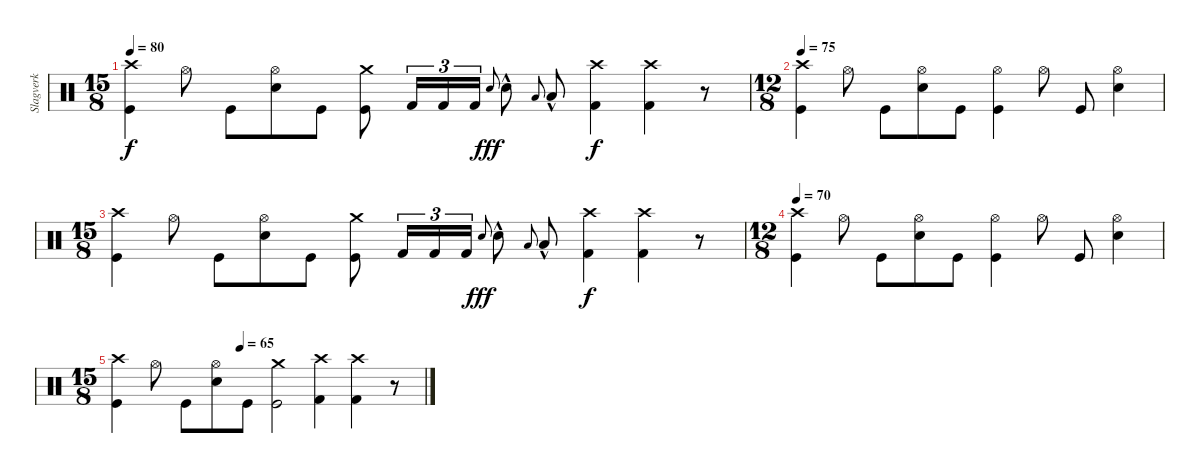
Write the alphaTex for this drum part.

\track ("Slagverk" "Slagverk") {instrument percussion}
\staff {score}
\articulation defaults
\ts (15 8)
\tempo 80
\clef neutral
\ks c
("Crash high (hit)" "Kick (hit)").4{dy f} "Hi-Hat (open)".8 "Kick (hit)".8 ("Hi-Hat (open)" "Snare (hit) 2").8 "Kick (hit)".8 ("Crash medium (hit)" "Kick (hit)").8 "Kick (hit) 2".16{tu (3 2)} "Kick (hit) 2".16{tu (3 2)} "Kick (hit) 2".16{tu (3 2)} "Snare (hit) 2".8{gr onbeat dy fff} "Snare (hit) 2"{hac}.8 "Low Tom (hit)".8{gr onbeat} "Low Tom (hit)"{hac}.8 ("Kick (hit) 2" "Crash high (hit)").4{dy f} ("Kick (hit) 2" "Crash high (hit)").4 r.8 |
\ts (12 8)
\tempo 75
("Crash high (hit)" "Kick (hit)").4 "Hi-Hat (open)".8 "Kick (hit)".8 ("Hi-Hat (open)" "Snare (hit) 2").8 "Kick (hit)".8 ("Hi-Hat (open)" "Kick (hit)").4 "Hi-Hat (open)".8 "Kick (hit)".8 ("Hi-Hat (open)" "Snare (hit) 2").4 |
\ts (15 8)
("Crash high (hit)" "Kick (hit)").4 "Hi-Hat (open)".8 "Kick (hit)".8 ("Hi-Hat (open)" "Snare (hit) 2").8 "Kick (hit)".8 ("Crash medium (hit)" "Kick (hit)").8 "Kick (hit) 2".16{tu (3 2)} "Kick (hit) 2".16{tu (3 2)} "Kick (hit) 2".16{tu (3 2)} "Snare (hit) 2".8{gr onbeat dy fff} "Snare (hit) 2"{hac}.8 "Low Tom (hit)".8{gr onbeat} "Low Tom (hit)"{hac}.8 ("Kick (hit) 2" "Crash high (hit)").4{dy f} ("Kick (hit) 2" "Crash high (hit)").4 r.8 |
\ts (12 8)
\tempo 70
("Crash high (hit)" "Kick (hit)").4 "Hi-Hat (open)".8 "Kick (hit)".8 ("Hi-Hat (open)" "Snare (hit) 2").8 "Kick (hit)".8 ("Hi-Hat (open)" "Kick (hit)").4 "Hi-Hat (open)".8 "Kick (hit)".8 ("Hi-Hat (open)" "Snare (hit) 2").4 |
\ts (15 8)
\tempo (65 0.4)
("Crash high (hit)" "Kick (hit)").4 "Hi-Hat (open)".8 "Kick (hit)".8 ("Hi-Hat (open)" "Snare (hit) 2").8 "Kick (hit)".8 ("Crash medium (hit)" "Kick (hit)").2 ("Kick (hit) 2" "Crash high (hit)").4 ("Kick (hit) 2" "Crash high (hit)").4 r.8
